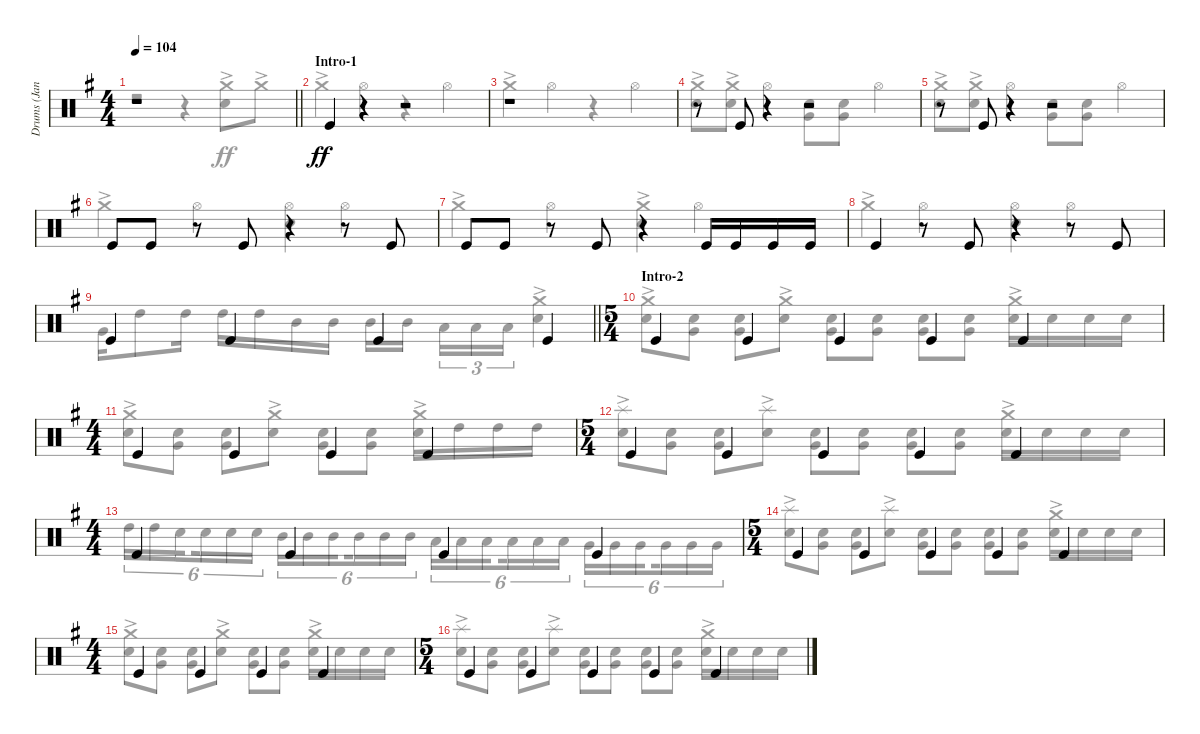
\track ("Drums (Jane)" "Drums (Jan") {instrument percussion}
\staff {score}
\articulation defaults
\voice
\ts (4 4)
\tempo 104
\clef neutral
\barLineRight lightlight
\ks eminor
r.1{dy ff} |
\section ("" "Intro-1")
"Kick (hit)".4 r.4 r.2 |
r.1 |
r.8 "Kick (hit)".8 r.4 r.2 |
r.8 "Kick (hit)".8 r.4 r.2 |
"Kick (hit)".8 "Kick (hit)".8 r.8 "Kick (hit)".8 r.4 r.8 "Kick (hit)".8 |
"Kick (hit)".8 "Kick (hit)".8 r.8 "Kick (hit)".8 r.4 "Kick (hit)".16 "Kick (hit)".16 "Kick (hit)".16 "Kick (hit)".16 |
"Kick (hit)".4 r.8 "Kick (hit)".8 r.4 r.8 "Kick (hit)".8 |
\barLineRight lightlight "Kick (hit)".4 "Kick (hit)".4 "Kick (hit)".4 "Kick (hit)".4
|
\ts (5 4)
\section ("" "Intro-2")
"Kick (hit)".4 "Kick (hit)".4 "Kick (hit)".4 "Kick (hit)".4 "Kick (hit)".4 |
\ts (4 4)
"Kick (hit)".4 "Kick (hit)".4 "Kick (hit)".4 "Kick (hit)".4 |
\ts (5 4)
"Kick (hit)".4 "Kick (hit)".4 "Kick (hit)".4 "Kick (hit)".4 "Kick (hit)".4 |
\ts (4 4)
"Kick (hit)".4 "Kick (hit)".4 "Kick (hit)".4 "Kick (hit)".4 |
\ts (5 4)
"Kick (hit)".4 "Kick (hit)".4 "Kick (hit)".4 "Kick (hit)".4 "Kick (hit)".4 |
\ts (4 4)
"Kick (hit)".4 "Kick (hit)".4 "Kick (hit)".4 "Kick (hit)".4 |
\ts (5 4)
"Kick (hit)".4 "Kick (hit)".4 "Kick (hit)".4 "Kick (hit)".4 "Kick (hit)".4
\voice
\clef neutral
\ottava regular
\simile none
\barLineRight lightlight
\ks eminor
r.2{dy ff} r.4 ("Crash medium (hit)"{ac} "Snare (hit) 2").8 "Crash medium (hit)"{ac}.8 |
"Crash medium (hit)"{ac}.4 "Hi-Hat (open)".4 r.4 "Hi-Hat (open)".4 |
"Crash medium (hit)"{ac}.4 "Hi-Hat (open)".4 r.4 "Hi-Hat (open)".4 |
("Crash medium (hit)"{ac} "Snare (hit) 2").8 ("Crash medium (hit)"{ac} "Snare (hit) 2").8 "Hi-Hat (open)".4 ("Snare (hit) 2" "Very Low Tom (hit)").8 ("Very Low Tom (hit)" "Snare (hit) 2").8 "Hi-Hat (open)".4 |
("Crash medium (hit)"{ac} "Snare (hit) 2").8 ("Crash medium (hit)"{ac} "Snare (hit) 2").8 "Hi-Hat (open)".4 ("Snare (hit) 2" "Very Low Tom (hit)").8 ("Very Low Tom (hit)" "Snare (hit) 2").8 "Hi-Hat (open)".4 |
"Crash medium (hit)"{ac}.4 "Hi-Hat (open)".4 ("Hi-Hat (open)" "Snare (hit) 2").4 "Hi-Hat (open)".4 |
"Crash medium (hit)"{ac}.4 "Hi-Hat (open)".4 ("Crash medium (hit)"{ac} "Snare (hit) 2").4 "Hi-Hat (open)".4 |
"Crash medium (hit)"{ac}.4 "Hi-Hat (open)".4 ("Hi-Hat (open)" "Snare (hit) 2").4 "Hi-Hat (open)".4 |
\barLineRight lightlight "Very Low Tom (hit)".16 "High Tom (hit)".8 "High Tom (hit)".16 "High Tom (hit)".16 "High Tom (hit)".16 "Mid Tom (hit)".16 "Mid Tom (hit)".16 "Mid Tom (hit)".16 "Mid Tom (hit)".16{beam splitsecondary} "Low Tom (hit)".16{tu (3 2)} "Low Tom (hit)".16{tu (3 2)} "Low Tom (hit)".16{tu (3 2)}
("Snare (hit) 2" "Crash medium (hit)"{ac}).4 |
("Snare (hit) 2" "Crash medium (hit)"{ac}).8 ("Snare (hit) 2" "Very Low Tom (hit)").8 ("Snare (hit) 2" "Very Low Tom (hit)").8 ("Snare (hit) 2" "Crash medium (hit)"{ac}).8 ("Snare (hit) 2" "Very Low Tom (hit)").8 ("Snare (hit) 2" "Very Low Tom (hit)").8 ("Snare (hit) 2" "Very Low Tom (hit)").8 ("Snare (hit) 2" "Very Low Tom (hit)").8 ("Snare (hit) 2" "Crash medium (hit)"{ac}).16 "Snare (hit) 2".16 "Snare (hit) 2".16 "Snare (hit) 2".16 |
("Snare (hit) 2" "Crash medium (hit)"{ac}).8 ("Snare (hit) 2" "Very Low Tom (hit)").8 ("Snare (hit) 2" "Very Low Tom (hit)").8 ("Snare (hit) 2" "Crash medium (hit)"{ac}).8 ("Snare (hit) 2" "Very Low Tom (hit)").8 ("Snare (hit) 2" "Very Low Tom (hit)").8 ("Snare (hit) 2" "Crash medium (hit)"{ac}).16 "High Tom (hit)".16 "High Tom (hit)".16 "High Tom (hit)".16 |
("Snare (hit) 2" "Splash (hit)"{ac}).8 ("Snare (hit) 2" "Very Low Tom (hit)").8 ("Snare (hit) 2" "Very Low Tom (hit)").8 ("Snare (hit) 2" "Splash (hit)"{ac}).8 ("Snare (hit) 2" "Very Low Tom (hit)").8 ("Snare (hit) 2" "Very Low Tom (hit)").8 ("Snare (hit) 2" "Very Low Tom (hit)").8 ("Snare (hit) 2" "Very Low Tom (hit)").8 ("Snare (hit) 2" "Crash medium (hit)"{ac}).16 "Snare (hit) 2".16 "Snare (hit) 2".16 "Snare (hit) 2".16 |
"High Tom (hit)".16{tu (6 4)} "High Tom (hit)".16{tu (6 4)} "Snare (hit) 2".16{tu (6 4) beam splitsecondary} "Snare (hit) 2".16{tu (6 4)} "Snare (hit) 2".16{tu (6 4)} "Snare (hit) 2".16{tu (6 4)} "Mid Tom (hit)".16{tu (6 4)} "Mid Tom (hit)".16{tu (6 4)} "Mid Tom (hit)".16{tu (6 4) beam splitsecondary} "Mid Tom (hit)".16{tu (6 4)} "Mid Tom (hit)".16{tu (6 4)} "Mid Tom (hit)".16{tu (6 4)} "Low Tom (hit)".16{tu (6 4)} "Low Tom (hit)".16{tu (6 4)} "Low Tom (hit)".16{tu (6 4) beam splitsecondary} "Low Tom (hit)".16{tu (6 4)} "Low Tom (hit)".16{tu (6 4)} "Low Tom (hit)".16{tu (6 4)} "Very Low Tom (hit)".16{tu (6 4)} "Very Low Tom (hit)".16{tu (6 4)} "Very Low Tom (hit)".16{tu (6 4) beam splitsecondary} "Very Low Tom (hit)".16{tu (6 4)} "Very Low Tom (hit)".16{tu (6 4)} "Very Low Tom (hit)".16{tu (6 4)} |
("Snare (hit) 2" "Splash (hit)"{ac}).8 ("Snare (hit) 2" "Very Low Tom (hit)").8 ("Snare (hit) 2" "Very Low Tom (hit)").8 ("Snare (hit) 2" "Splash (hit)"{ac}).8 ("Snare (hit) 2" "Very Low Tom (hit)").8 ("Snare (hit) 2" "Very Low Tom (hit)").8 ("Snare (hit) 2" "Very Low Tom (hit)").8 ("Snare (hit) 2" "Very Low Tom (hit)").8 ("Snare (hit) 2" "Crash medium (hit)"{ac}).16 "Snare (hit) 2".16 "Snare (hit) 2".16 "Snare (hit) 2".16 |
("Snare (hit) 2" "Crash medium (hit)"{ac}).8 ("Snare (hit) 2" "Very Low Tom (hit)").8 ("Snare (hit) 2" "Very Low Tom (hit)").8 ("Snare (hit) 2" "Crash medium (hit)"{ac}).8 ("Snare (hit) 2" "Very Low Tom (hit)").8 ("Snare (hit) 2" "Very Low Tom (hit)").8 ("Snare (hit) 2" "Crash medium (hit)"{ac}).16 "Snare (hit) 2".16 "Snare (hit) 2".16 "Snare (hit) 2".16 |
("Snare (hit) 2" "Splash (hit)"{ac}).8 ("Snare (hit) 2" "Very Low Tom (hit)").8 ("Snare (hit) 2" "Very Low Tom (hit)").8 ("Snare (hit) 2" "Splash (hit)"{ac}).8 ("Snare (hit) 2" "Very Low Tom (hit)").8 ("Snare (hit) 2" "Very Low Tom (hit)").8 ("Snare (hit) 2" "Very Low Tom (hit)").8 ("Snare (hit) 2" "Very Low Tom (hit)").8 ("Snare (hit) 2" "Crash medium (hit)"{ac}).16 "Snare (hit) 2".16 "Snare (hit) 2".16 "Snare (hit) 2".16
